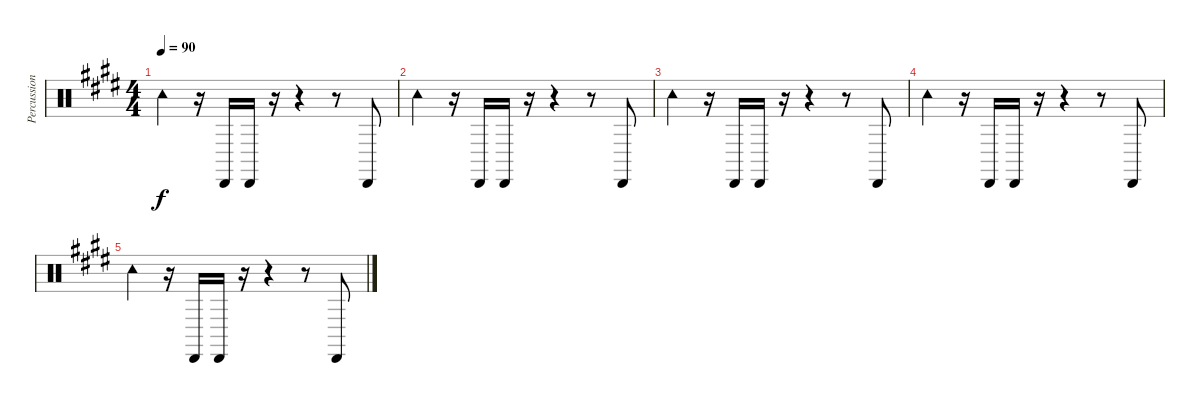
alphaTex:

\track ("Percussion" "Percussion") {instrument percussion}
\staff {score}
\articulation defaults
\ts (4 4)
\tempo 90
\clef neutral
\ks e "Tambourine (hit)".4{dy f}
r.16 "Cabasa (hit)".16 "Cabasa (hit)".16 r.16 r.4 r.8 "Cabasa (hit)".8 |
"Tambourine (hit)".4 r.16 "Cabasa (hit)".16 "Cabasa (hit)".16 r.16 r.4 r.8 "Cabasa (hit)".8 |
"Tambourine (hit)".4 r.16 "Cabasa (hit)".16 "Cabasa (hit)".16 r.16 r.4 r.8 "Cabasa (hit)".8 |
"Tambourine (hit)".4 r.16 "Cabasa (hit)".16 "Cabasa (hit)".16 r.16 r.4 r.8 "Cabasa (hit)".8 |
"Tambourine (hit)".4 r.16 "Cabasa (hit)".16 "Cabasa (hit)".16 r.16 r.4 r.8 "Cabasa (hit)".8
